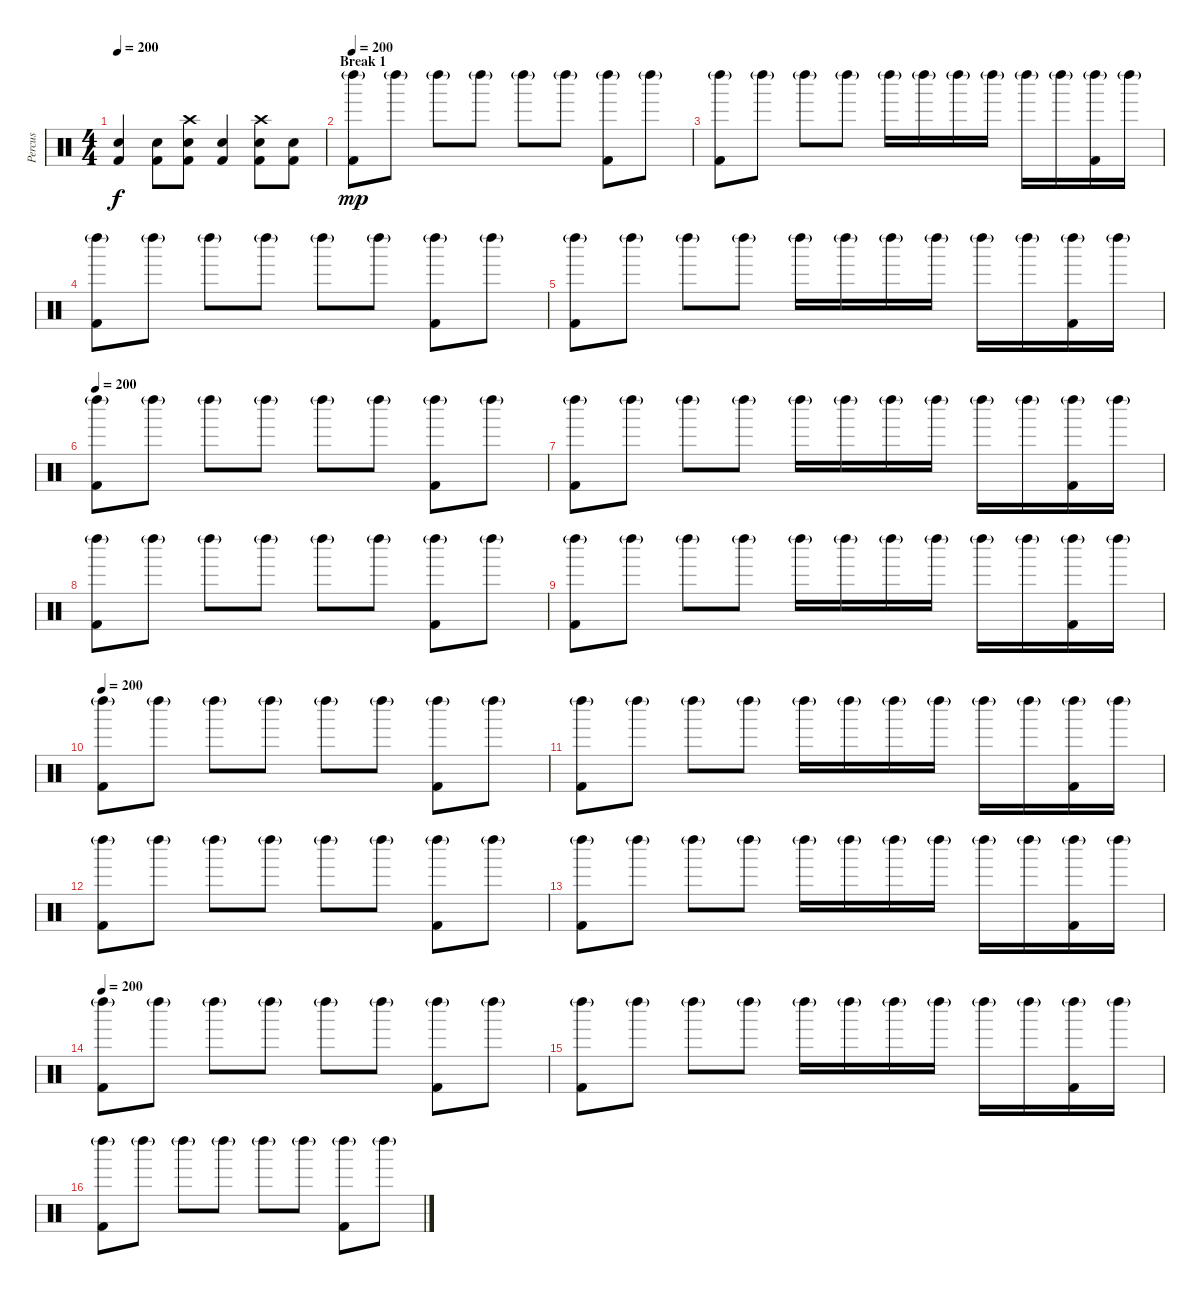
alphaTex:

\track ("Percus" "Percus") {instrument percussion}
\staff {score}
\articulation defaults
\ts (4 4)
\tempo 200
\clef neutral
\ks c
("Snare (hit) 2" "Kick (hit) 2").4{dy f} ("Snare (hit) 2" "Kick (hit) 2").8 ("Crash high (hit)" "Snare (hit) 2" "Kick (hit) 2").8 ("Snare (hit) 2" "Kick (hit) 2").4 ("Crash high (hit)" "Snare (hit) 2" "Kick (hit) 2").8 ("Snare (hit) 2" "Kick (hit) 2").8 |
\section ("" "Break 1")
\tempo 200
("Left Maraca (hit)"{g} "Kick (hit) 2").8{dy mp} "Left Maraca (hit)"{g}.8 "Left Maraca (hit)"{g}.8 "Left Maraca (hit)"{g}.8 "Left Maraca (hit)"{g}.8 "Left Maraca (hit)"{g}.8 ("Left Maraca (hit)"{g} "Kick (hit) 2").8 "Left Maraca (hit)"{g}.8 |
("Left Maraca (hit)"{g} "Kick (hit) 2").8 "Left Maraca (hit)"{g}.8 "Left Maraca (hit)"{g}.8 "Left Maraca (hit)"{g}.8 "Left Maraca (hit)"{g}.16 "Left Maraca (hit)"{g}.16 "Left Maraca (hit)"{g}.16 "Left Maraca (hit)"{g}.16 "Left Maraca (hit)"{g}.16 "Left Maraca (hit)"{g}.16 ("Left Maraca (hit)"{g} "Kick (hit) 2").16 "Left Maraca (hit)"{g}.16 |
("Left Maraca (hit)"{g} "Kick (hit) 2").8 "Left Maraca (hit)"{g}.8 "Left Maraca (hit)"{g}.8 "Left Maraca (hit)"{g}.8 "Left Maraca (hit)"{g}.8 "Left Maraca (hit)"{g}.8 ("Left Maraca (hit)"{g} "Kick (hit) 2").8 "Left Maraca (hit)"{g}.8 |
("Left Maraca (hit)"{g} "Kick (hit) 2").8 "Left Maraca (hit)"{g}.8 "Left Maraca (hit)"{g}.8 "Left Maraca (hit)"{g}.8 "Left Maraca (hit)"{g}.16 "Left Maraca (hit)"{g}.16 "Left Maraca (hit)"{g}.16 "Left Maraca (hit)"{g}.16 "Left Maraca (hit)"{g}.16 "Left Maraca (hit)"{g}.16 ("Left Maraca (hit)"{g} "Kick (hit) 2").16 "Left Maraca (hit)"{g}.16 |
\tempo 200
("Left Maraca (hit)"{g} "Kick (hit) 2").8 "Left Maraca (hit)"{g}.8 "Left Maraca (hit)"{g}.8 "Left Maraca (hit)"{g}.8 "Left Maraca (hit)"{g}.8 "Left Maraca (hit)"{g}.8 ("Left Maraca (hit)"{g} "Kick (hit) 2").8 "Left Maraca (hit)"{g}.8 |
("Left Maraca (hit)"{g} "Kick (hit) 2").8 "Left Maraca (hit)"{g}.8 "Left Maraca (hit)"{g}.8 "Left Maraca (hit)"{g}.8 "Left Maraca (hit)"{g}.16 "Left Maraca (hit)"{g}.16 "Left Maraca (hit)"{g}.16 "Left Maraca (hit)"{g}.16 "Left Maraca (hit)"{g}.16 "Left Maraca (hit)"{g}.16 ("Left Maraca (hit)"{g} "Kick (hit) 2").16 "Left Maraca (hit)"{g}.16 |
("Left Maraca (hit)"{g} "Kick (hit) 2").8 "Left Maraca (hit)"{g}.8 "Left Maraca (hit)"{g}.8 "Left Maraca (hit)"{g}.8 "Left Maraca (hit)"{g}.8 "Left Maraca (hit)"{g}.8 ("Left Maraca (hit)"{g} "Kick (hit) 2").8 "Left Maraca (hit)"{g}.8 |
("Left Maraca (hit)"{g} "Kick (hit) 2").8 "Left Maraca (hit)"{g}.8 "Left Maraca (hit)"{g}.8 "Left Maraca (hit)"{g}.8 "Left Maraca (hit)"{g}.16 "Left Maraca (hit)"{g}.16 "Left Maraca (hit)"{g}.16 "Left Maraca (hit)"{g}.16 "Left Maraca (hit)"{g}.16 "Left Maraca (hit)"{g}.16 ("Left Maraca (hit)"{g} "Kick (hit) 2").16 "Left Maraca (hit)"{g}.16 |
\tempo 200
("Left Maraca (hit)"{g} "Kick (hit) 2").8 "Left Maraca (hit)"{g}.8 "Left Maraca (hit)"{g}.8 "Left Maraca (hit)"{g}.8 "Left Maraca (hit)"{g}.8 "Left Maraca (hit)"{g}.8 ("Left Maraca (hit)"{g} "Kick (hit) 2").8 "Left Maraca (hit)"{g}.8 |
("Left Maraca (hit)"{g} "Kick (hit) 2").8 "Left Maraca (hit)"{g}.8 "Left Maraca (hit)"{g}.8 "Left Maraca (hit)"{g}.8 "Left Maraca (hit)"{g}.16 "Left Maraca (hit)"{g}.16 "Left Maraca (hit)"{g}.16 "Left Maraca (hit)"{g}.16 "Left Maraca (hit)"{g}.16 "Left Maraca (hit)"{g}.16 ("Left Maraca (hit)"{g} "Kick (hit) 2").16 "Left Maraca (hit)"{g}.16 |
("Left Maraca (hit)"{g} "Kick (hit) 2").8 "Left Maraca (hit)"{g}.8 "Left Maraca (hit)"{g}.8 "Left Maraca (hit)"{g}.8 "Left Maraca (hit)"{g}.8 "Left Maraca (hit)"{g}.8 ("Left Maraca (hit)"{g} "Kick (hit) 2").8 "Left Maraca (hit)"{g}.8 |
("Left Maraca (hit)"{g} "Kick (hit) 2").8 "Left Maraca (hit)"{g}.8 "Left Maraca (hit)"{g}.8 "Left Maraca (hit)"{g}.8 "Left Maraca (hit)"{g}.16 "Left Maraca (hit)"{g}.16 "Left Maraca (hit)"{g}.16 "Left Maraca (hit)"{g}.16 "Left Maraca (hit)"{g}.16 "Left Maraca (hit)"{g}.16 ("Left Maraca (hit)"{g} "Kick (hit) 2").16 "Left Maraca (hit)"{g}.16 |
\tempo 200
("Left Maraca (hit)"{g} "Kick (hit) 2").8 "Left Maraca (hit)"{g}.8 "Left Maraca (hit)"{g}.8 "Left Maraca (hit)"{g}.8 "Left Maraca (hit)"{g}.8 "Left Maraca (hit)"{g}.8 ("Left Maraca (hit)"{g} "Kick (hit) 2").8 "Left Maraca (hit)"{g}.8 |
("Left Maraca (hit)"{g} "Kick (hit) 2").8 "Left Maraca (hit)"{g}.8 "Left Maraca (hit)"{g}.8 "Left Maraca (hit)"{g}.8 "Left Maraca (hit)"{g}.16 "Left Maraca (hit)"{g}.16 "Left Maraca (hit)"{g}.16 "Left Maraca (hit)"{g}.16 "Left Maraca (hit)"{g}.16 "Left Maraca (hit)"{g}.16 ("Left Maraca (hit)"{g} "Kick (hit) 2").16 "Left Maraca (hit)"{g}.16 |
("Left Maraca (hit)"{g} "Kick (hit) 2").8 "Left Maraca (hit)"{g}.8 "Left Maraca (hit)"{g}.8 "Left Maraca (hit)"{g}.8 "Left Maraca (hit)"{g}.8 "Left Maraca (hit)"{g}.8 ("Left Maraca (hit)"{g} "Kick (hit) 2").8 "Left Maraca (hit)"{g}.8
